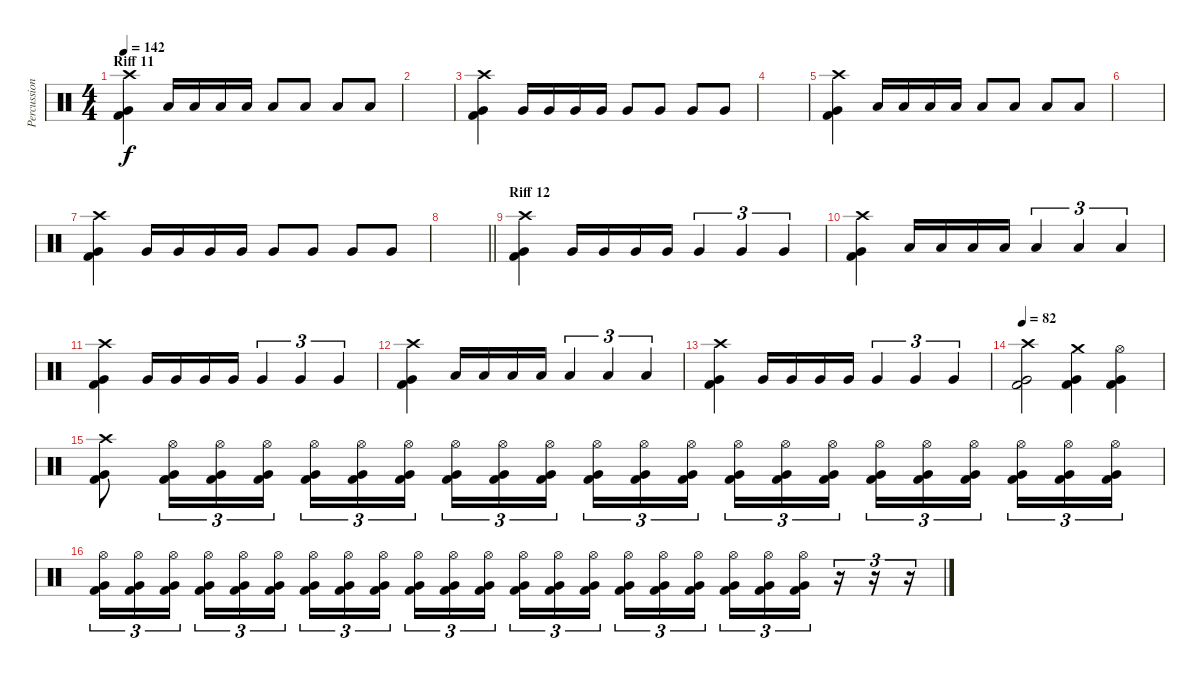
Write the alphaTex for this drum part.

\track ("Percussions" "Percussion") {instrument percussion}
\staff {score}
\articulation defaults
\ts (4 4)
\section ("" "Riff 11")
\tempo 142
\clef neutral
\ks c
("Crash high (hit)" "Very Low Tom (hit)" "Kick (hit) 2").4{dy f} "Low Floor Tom (hit)".16 "Low Floor Tom (hit)".16 "Low Floor Tom (hit)".16 "Low Floor Tom (hit)".16 "Low Floor Tom (hit)".8 "Low Floor Tom (hit)".8 "Low Floor Tom (hit)".8 "Low Floor Tom (hit)".8 |
|
("Crash high (hit)" "Very Low Tom (hit)" "Kick (hit) 2").4 "Very Low Tom (hit)".16 "Very Low Tom (hit)".16 "Very Low Tom (hit)".16 "Very Low Tom (hit)".16 "Very Low Tom (hit)".8 "Very Low Tom (hit)".8 "Very Low Tom (hit)".8 "Very Low Tom (hit)".8 |
|
("Crash high (hit)" "Very Low Tom (hit)" "Kick (hit) 2").4 "Low Floor Tom (hit)".16 "Low Floor Tom (hit)".16 "Low Floor Tom (hit)".16 "Low Floor Tom (hit)".16 "Low Floor Tom (hit)".8 "Low Floor Tom (hit)".8 "Low Floor Tom (hit)".8 "Low Floor Tom (hit)".8 |
|
("Crash high (hit)" "Very Low Tom (hit)" "Kick (hit) 2").4 "Very Low Tom (hit)".16 "Very Low Tom (hit)".16 "Very Low Tom (hit)".16 "Very Low Tom (hit)".16 "Very Low Tom (hit)".8 "Very Low Tom (hit)".8 "Very Low Tom (hit)".8 "Very Low Tom (hit)".8 |
\barLineRight lightlight
|
\section ("" "Riff 12")
("Crash high (hit)" "Very Low Tom (hit)" "Kick (hit) 2").4 "Very Low Tom (hit)".16 "Very Low Tom (hit)".16 "Very Low Tom (hit)".16 "Very Low Tom (hit)".16 "Very Low Tom (hit)".4{tu (3 2)} "Very Low Tom (hit)".4{tu (3 2)} "Very Low Tom (hit)".4{tu (3 2)} |
("Crash high (hit)" "Very Low Tom (hit)" "Kick (hit) 2").4 "Low Floor Tom (hit)".16 "Low Floor Tom (hit)".16 "Low Floor Tom (hit)".16 "Low Floor Tom (hit)".16 "Low Floor Tom (hit)".4{tu (3 2)} "Low Floor Tom (hit)".4{tu (3 2)} "Low Floor Tom (hit)".4{tu (3 2)} |
("Crash high (hit)" "Very Low Tom (hit)" "Kick (hit) 2").4 "Very Low Tom (hit)".16 "Very Low Tom (hit)".16 "Very Low Tom (hit)".16 "Very Low Tom (hit)".16 "Very Low Tom (hit)".4{tu (3 2)} "Very Low Tom (hit)".4{tu (3 2)} "Very Low Tom (hit)".4{tu (3 2)} |
("Crash high (hit)" "Very Low Tom (hit)" "Kick (hit) 2").4 "Low Floor Tom (hit)".16 "Low Floor Tom (hit)".16 "Low Floor Tom (hit)".16 "Low Floor Tom (hit)".16 "Low Floor Tom (hit)".4{tu (3 2)} "Low Floor Tom (hit)".4{tu (3 2)} "Low Floor Tom (hit)".4{tu (3 2)} |
("Crash high (hit)" "Very Low Tom (hit)" "Kick (hit) 2").4 "Very Low Tom (hit)".16 "Very Low Tom (hit)".16 "Very Low Tom (hit)".16 "Very Low Tom (hit)".16 "Very Low Tom (hit)".4{tu (3 2)} "Very Low Tom (hit)".4{tu (3 2)} "Very Low Tom (hit)".4{tu (3 2)} |
\tempo 82
("Crash high (hit)" "Very Low Tom (hit)" "Kick (hit) 2").2 ("Crash medium (hit)" "Very Low Tom (hit)" "Kick (hit) 2").4 ("Hi-Hat (open)" "Very Low Tom (hit)" "Kick (hit) 2").4 |
("Crash high (hit)" "Very Low Tom (hit)" "Kick (hit) 2").8 ("Hi-Hat (open)" "Very Low Tom (hit)" "Kick (hit) 2").16{tu (3 2)} ("Hi-Hat (open)" "Very Low Tom (hit)" "Kick (hit) 2").16{tu (3 2)} ("Hi-Hat (open)" "Very Low Tom (hit)" "Kick (hit) 2").16{tu (3 2)} ("Hi-Hat (open)" "Very Low Tom (hit)" "Kick (hit) 2").16{tu (3 2)} ("Hi-Hat (open)" "Very Low Tom (hit)" "Kick (hit) 2").16{tu (3 2)} ("Hi-Hat (open)" "Very Low Tom (hit)" "Kick (hit) 2").16{tu (3 2) beam splitsecondary} ("Hi-Hat (open)" "Very Low Tom (hit)" "Kick (hit) 2").16{tu (3 2)} ("Hi-Hat (open)" "Very Low Tom (hit)" "Kick (hit) 2").16{tu (3 2)} ("Hi-Hat (open)" "Very Low Tom (hit)" "Kick (hit) 2").16{tu (3 2)} ("Hi-Hat (open)" "Very Low Tom (hit)" "Kick (hit) 2").16{tu (3 2)} ("Hi-Hat (open)" "Very Low Tom (hit)" "Kick (hit) 2").16{tu (3 2)} ("Hi-Hat (open)" "Very Low Tom (hit)" "Kick (hit) 2").16{tu (3 2) beam splitsecondary} ("Hi-Hat (open)" "Very Low Tom (hit)" "Kick (hit) 2").16{tu (3 2)} ("Hi-Hat (open)" "Very Low Tom (hit)" "Kick (hit) 2").16{tu (3 2)} ("Hi-Hat (open)" "Very Low Tom (hit)" "Kick (hit) 2").16{tu (3 2)} ("Hi-Hat (open)" "Very Low Tom (hit)" "Kick (hit) 2").16{tu (3 2)} ("Hi-Hat (open)" "Very Low Tom (hit)" "Kick (hit) 2").16{tu (3 2)} ("Hi-Hat (open)" "Very Low Tom (hit)" "Kick (hit) 2").16{tu (3 2) beam splitsecondary} ("Hi-Hat (open)" "Very Low Tom (hit)" "Kick (hit) 2").16{tu (3 2)} ("Hi-Hat (open)" "Very Low Tom (hit)" "Kick (hit) 2").16{tu (3 2)} ("Hi-Hat (open)" "Very Low Tom (hit)" "Kick (hit) 2").16{tu (3 2)} |
("Hi-Hat (open)" "Very Low Tom (hit)" "Kick (hit) 2").16{tu (3 2)} ("Hi-Hat (open)" "Very Low Tom (hit)" "Kick (hit) 2").16{tu (3 2)} ("Hi-Hat (open)" "Very Low Tom (hit)" "Kick (hit) 2").16{tu (3 2) beam splitsecondary} ("Hi-Hat (open)" "Very Low Tom (hit)" "Kick (hit) 2").16{tu (3 2)} ("Hi-Hat (open)" "Very Low Tom (hit)" "Kick (hit) 2").16{tu (3 2)} ("Hi-Hat (open)" "Very Low Tom (hit)" "Kick (hit) 2").16{tu (3 2)} ("Hi-Hat (open)" "Very Low Tom (hit)" "Kick (hit) 2").16{tu (3 2)} ("Hi-Hat (open)" "Very Low Tom (hit)" "Kick (hit) 2").16{tu (3 2)} ("Hi-Hat (open)" "Very Low Tom (hit)" "Kick (hit) 2").16{tu (3 2) beam splitsecondary} ("Hi-Hat (open)" "Very Low Tom (hit)" "Kick (hit) 2").16{tu (3 2)} ("Hi-Hat (open)" "Very Low Tom (hit)" "Kick (hit) 2").16{tu (3 2)} ("Hi-Hat (open)" "Very Low Tom (hit)" "Kick (hit) 2").16{tu (3 2)} ("Hi-Hat (open)" "Very Low Tom (hit)" "Kick (hit) 2").16{tu (3 2)} ("Hi-Hat (open)" "Very Low Tom (hit)" "Kick (hit) 2").16{tu (3 2)} ("Hi-Hat (open)" "Very Low Tom (hit)" "Kick (hit) 2").16{tu (3 2) beam splitsecondary} ("Hi-Hat (open)" "Very Low Tom (hit)" "Kick (hit) 2").16{tu (3 2)} ("Hi-Hat (open)" "Very Low Tom (hit)" "Kick (hit) 2").16{tu (3 2)} ("Hi-Hat (open)" "Very Low Tom (hit)" "Kick (hit) 2").16{tu (3 2)} ("Hi-Hat (open)" "Very Low Tom (hit)" "Kick (hit) 2").16{tu (3 2)} ("Hi-Hat (open)" "Very Low Tom (hit)" "Kick (hit) 2").16{tu (3 2)} ("Hi-Hat (open)" "Very Low Tom (hit)" "Kick (hit) 2").16{tu (3 2)} r.16{tu (3 2)} r.16{tu (3 2)} r.16{tu (3 2)}
